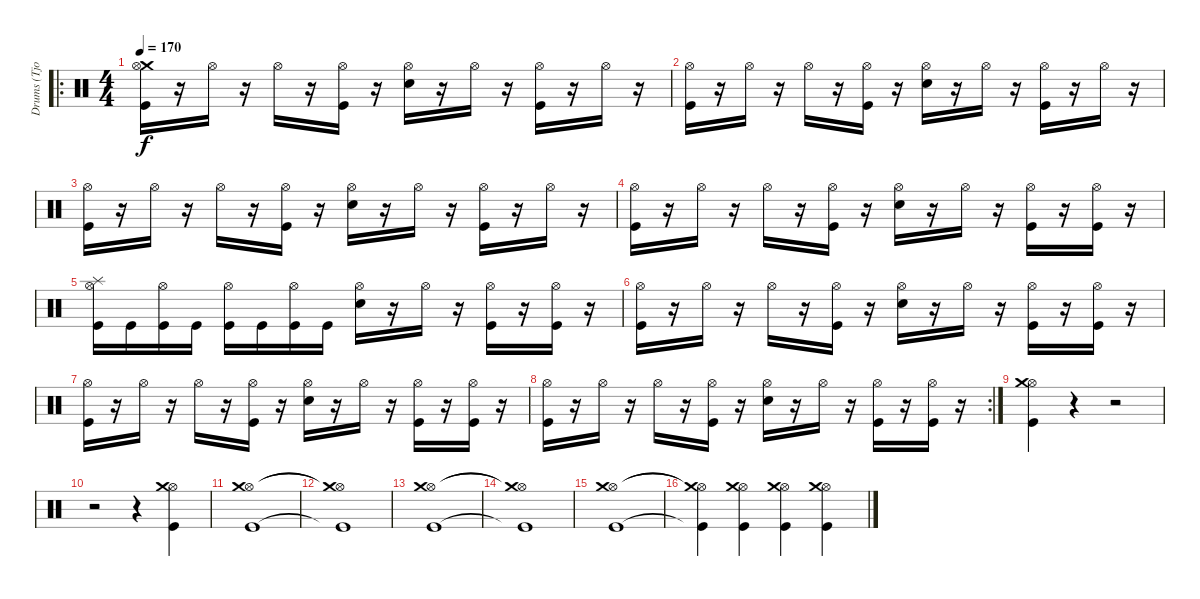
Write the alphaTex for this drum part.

\track ("Drums (Tjodalv)" "Drums (Tjo") {instrument percussion}
\staff {score}
\articulation defaults
\ro
\ts (4 4)
\tempo 170
\clef neutral
\ks c
("Crash medium (hit)" "Hi-Hat (open)" "Kick (hit)").16{dy f} r.16 "Hi-Hat (open)".16 r.16 "Hi-Hat (open)".16 r.16 ("Kick (hit)" "Hi-Hat (open)").16 r.16 ("Electric Snare (hit)" "Hi-Hat (open)").16 r.16 "Hi-Hat (open)".16 r.16 ("Kick (hit)" "Hi-Hat (open)").16 r.16 "Hi-Hat (open)".16 r.16 |
("Hi-Hat (open)" "Kick (hit)").16 r.16 "Hi-Hat (open)".16 r.16 "Hi-Hat (open)".16 r.16 ("Kick (hit)" "Hi-Hat (open)").16 r.16 ("Electric Snare (hit)" "Hi-Hat (open)").16 r.16 "Hi-Hat (open)".16 r.16 ("Kick (hit)" "Hi-Hat (open)").16 r.16 "Hi-Hat (open)".16 r.16 |
("Hi-Hat (open)" "Kick (hit)").16 r.16 "Hi-Hat (open)".16 r.16 "Hi-Hat (open)".16 r.16 ("Kick (hit)" "Hi-Hat (open)").16 r.16 ("Electric Snare (hit)" "Hi-Hat (open)").16 r.16 "Hi-Hat (open)".16 r.16 ("Kick (hit)" "Hi-Hat (open)").16 r.16 "Hi-Hat (open)".16 r.16 |
("Hi-Hat (open)" "Kick (hit)").16 r.16 "Hi-Hat (open)".16 r.16 "Hi-Hat (open)".16 r.16 ("Kick (hit)" "Hi-Hat (open)").16 r.16 ("Electric Snare (hit)" "Hi-Hat (open)").16 r.16 "Hi-Hat (open)".16 r.16 ("Kick (hit)" "Hi-Hat (open)").16 r.16 ("Hi-Hat (open)" "Kick (hit)").16 r.16 |
("Splash (hit)" "Hi-Hat (open)" "Kick (hit)").16 "Kick (hit)".16 ("Kick (hit)" "Hi-Hat (open)").16 "Kick (hit)".16 ("Kick (hit)" "Hi-Hat (open)").16 "Kick (hit)".16 ("Kick (hit)" "Hi-Hat (open)").16 "Kick (hit)".16 ("Electric Snare (hit)" "Hi-Hat (open)").16 r.16 "Hi-Hat (open)".16 r.16 ("Kick (hit)" "Hi-Hat (open)").16 r.16 ("Hi-Hat (open)" "Kick (hit)").16 r.16 |
("Hi-Hat (open)" "Kick (hit)").16 r.16 "Hi-Hat (open)".16 r.16 "Hi-Hat (open)".16 r.16 ("Kick (hit)" "Hi-Hat (open)").16 r.16 ("Electric Snare (hit)" "Hi-Hat (open)").16 r.16 "Hi-Hat (open)".16 r.16 ("Kick (hit)" "Hi-Hat (open)").16 r.16 ("Hi-Hat (open)" "Kick (hit)").16 r.16 |
("Hi-Hat (open)" "Kick (hit)").16 r.16 "Hi-Hat (open)".16 r.16 "Hi-Hat (open)".16 r.16 ("Kick (hit)" "Hi-Hat (open)").16 r.16 ("Electric Snare (hit)" "Hi-Hat (open)").16 r.16 "Hi-Hat (open)".16 r.16 ("Kick (hit)" "Hi-Hat (open)").16 r.16 ("Hi-Hat (open)" "Kick (hit)").16 r.16 |
\rc 2
("Hi-Hat (open)" "Kick (hit)").16 r.16 "Hi-Hat (open)".16 r.16 "Hi-Hat (open)".16 r.16 ("Kick (hit)" "Hi-Hat (open)").16 r.16 ("Electric Snare (hit)" "Hi-Hat (open)").16 r.16 "Hi-Hat (open)".16 r.16 ("Kick (hit)" "Hi-Hat (open)").16 r.16 ("Hi-Hat (open)" "Kick (hit)").16 r.16 |
("Hi-Hat (open)" "Kick (hit)" "Crash medium (hit)").4 r.4 r.2 |
r.2 r.4 ("Hi-Hat (open)" "Kick (hit)" "Crash medium (hit)").4 |
("Hi-Hat (open)" "Kick (hit)" "Crash medium (hit)").1 |
("Hi-Hat (open)"{t} "Kick (hit)"{t} "Crash medium (hit)"{t}).1 |
("Hi-Hat (open)" "Kick (hit)" "Crash medium (hit)").1 |
("Hi-Hat (open)"{t} "Kick (hit)"{t} "Crash medium (hit)"{t}).1 |
("Hi-Hat (open)" "Kick (hit)" "Crash medium (hit)").1 |
("Hi-Hat (open)"{t} "Kick (hit)"{t} "Crash medium (hit)"{t}).4 ("Hi-Hat (open)" "Kick (hit)" "Crash medium (hit)").4 ("Hi-Hat (open)" "Kick (hit)" "Crash medium (hit)").4 ("Hi-Hat (open)" "Kick (hit)" "Crash medium (hit)").4
